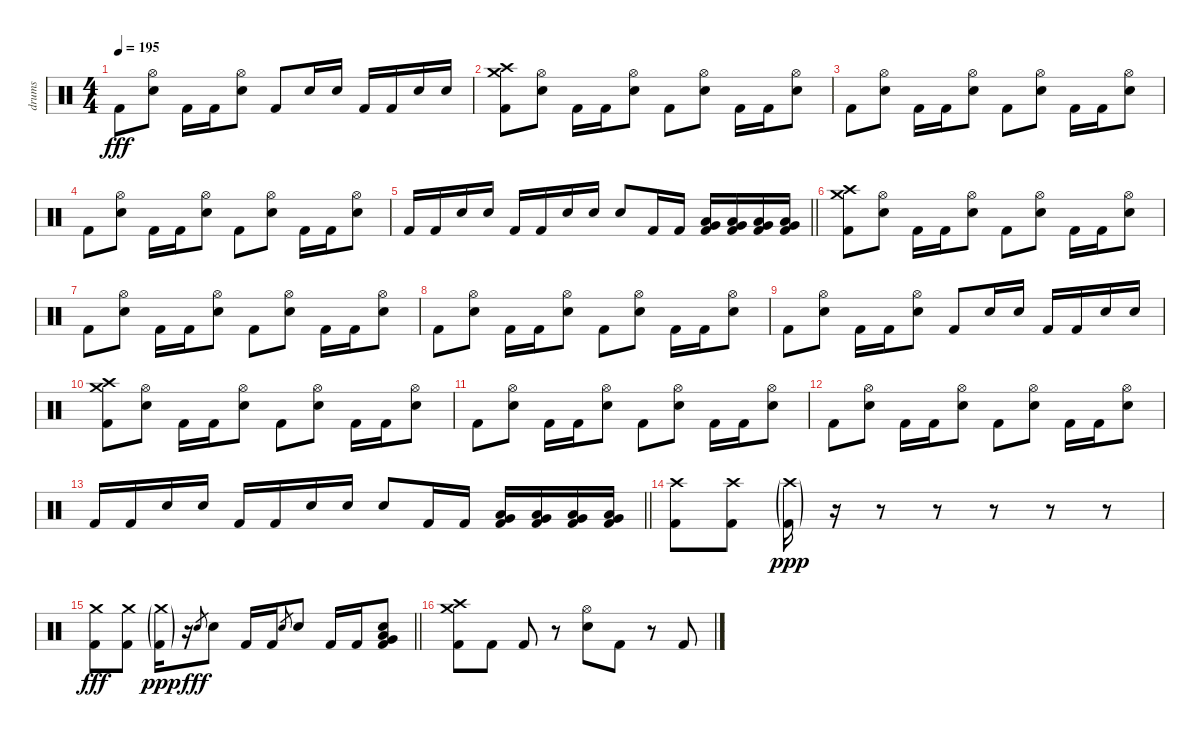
\track ("drums" "drums") {instrument percussion}
\staff {score}
\articulation defaults
\ts (4 4)
\tempo 195
\clef neutral
\ks c "Kick (hit) 2".8{dy fff}
("Hi-Hat (open)" "Electric Snare (hit)").8 "Kick (hit) 2".16 "Kick (hit) 2".16 ("Hi-Hat (open)" "Electric Snare (hit)").8 "Kick (hit) 2".8 "Electric Snare (hit)".16 "Electric Snare (hit)".16 "Kick (hit) 2".16 "Kick (hit) 2".16 "Electric Snare (hit)".16 "Electric Snare (hit)".16 |
("Crash medium (hit)" "Crash high (hit)" "Kick (hit) 2").8 ("Hi-Hat (open)" "Electric Snare (hit)").8 "Kick (hit) 2".16 "Kick (hit) 2".16 ("Hi-Hat (open)" "Electric Snare (hit)").8 "Kick (hit) 2".8 ("Hi-Hat (open)" "Electric Snare (hit)").8 "Kick (hit) 2".16 "Kick (hit) 2".16 ("Hi-Hat (open)" "Electric Snare (hit)").8 |
"Kick (hit) 2".8 ("Hi-Hat (open)" "Electric Snare (hit)").8 "Kick (hit) 2".16 "Kick (hit) 2".16 ("Hi-Hat (open)" "Electric Snare (hit)").8 "Kick (hit) 2".8 ("Hi-Hat (open)" "Electric Snare (hit)").8 "Kick (hit) 2".16 "Kick (hit) 2".16 ("Hi-Hat (open)" "Electric Snare (hit)").8 |
"Kick (hit) 2".8 ("Hi-Hat (open)" "Electric Snare (hit)").8 "Kick (hit) 2".16 "Kick (hit) 2".16 ("Hi-Hat (open)" "Electric Snare (hit)").8 "Kick (hit) 2".8 ("Hi-Hat (open)" "Electric Snare (hit)").8 "Kick (hit) 2".16 "Kick (hit) 2".16 ("Hi-Hat (open)" "Electric Snare (hit)").8 |
\barLineRight lightlight "Kick (hit) 2".16 "Kick (hit) 2".16 "Electric Snare (hit)".16 "Electric Snare (hit)".16 "Kick (hit) 2".16 "Kick (hit) 2".16 "Electric Snare (hit)".16 "Electric Snare (hit)".16 "Electric Snare (hit)".8 "Kick (hit) 2".16 "Kick (hit) 2".16
("Very Low Tom (hit)" "Low Floor Tom (hit)" "Kick (hit) 2").16 ("Low Floor Tom (hit)" "Very Low Tom (hit)" "Kick (hit) 2").16 ("Very Low Tom (hit)" "Low Floor Tom (hit)" "Kick (hit) 2").16 ("Low Floor Tom (hit)" "Very Low Tom (hit)" "Kick (hit) 2").16 |
("Crash medium (hit)" "Crash high (hit)" "Kick (hit) 2").8 ("Hi-Hat (open)" "Electric Snare (hit)").8 "Kick (hit) 2".16 "Kick (hit) 2".16 ("Hi-Hat (open)" "Electric Snare (hit)").8 "Kick (hit) 2".8 ("Hi-Hat (open)" "Electric Snare (hit)").8 "Kick (hit) 2".16 "Kick (hit) 2".16 ("Hi-Hat (open)" "Electric Snare (hit)").8 |
"Kick (hit) 2".8 ("Hi-Hat (open)" "Electric Snare (hit)").8 "Kick (hit) 2".16 "Kick (hit) 2".16 ("Hi-Hat (open)" "Electric Snare (hit)").8 "Kick (hit) 2".8 ("Hi-Hat (open)" "Electric Snare (hit)").8 "Kick (hit) 2".16 "Kick (hit) 2".16 ("Hi-Hat (open)" "Electric Snare (hit)").8 |
"Kick (hit) 2".8 ("Hi-Hat (open)" "Electric Snare (hit)").8 "Kick (hit) 2".16 "Kick (hit) 2".16 ("Hi-Hat (open)" "Electric Snare (hit)").8 "Kick (hit) 2".8 ("Hi-Hat (open)" "Electric Snare (hit)").8 "Kick (hit) 2".16 "Kick (hit) 2".16 ("Hi-Hat (open)" "Electric Snare (hit)").8 |
"Kick (hit) 2".8 ("Hi-Hat (open)" "Electric Snare (hit)").8 "Kick (hit) 2".16 "Kick (hit) 2".16 ("Hi-Hat (open)" "Electric Snare (hit)").8 "Kick (hit) 2".8 "Electric Snare (hit)".16 "Electric Snare (hit)".16 "Kick (hit) 2".16 "Kick (hit) 2".16 "Electric Snare (hit)".16 "Electric Snare (hit)".16 |
("Crash medium (hit)" "Crash high (hit)" "Kick (hit) 2").8 ("Hi-Hat (open)" "Electric Snare (hit)").8 "Kick (hit) 2".16 "Kick (hit) 2".16 ("Hi-Hat (open)" "Electric Snare (hit)").8 "Kick (hit) 2".8 ("Hi-Hat (open)" "Electric Snare (hit)").8 "Kick (hit) 2".16 "Kick (hit) 2".16 ("Hi-Hat (open)" "Electric Snare (hit)").8 |
"Kick (hit) 2".8 ("Hi-Hat (open)" "Electric Snare (hit)").8 "Kick (hit) 2".16 "Kick (hit) 2".16 ("Hi-Hat (open)" "Electric Snare (hit)").8 "Kick (hit) 2".8 ("Hi-Hat (open)" "Electric Snare (hit)").8 "Kick (hit) 2".16 "Kick (hit) 2".16 ("Hi-Hat (open)" "Electric Snare (hit)").8 |
"Kick (hit) 2".8 ("Hi-Hat (open)" "Electric Snare (hit)").8 "Kick (hit) 2".16 "Kick (hit) 2".16 ("Hi-Hat (open)" "Electric Snare (hit)").8 "Kick (hit) 2".8 ("Hi-Hat (open)" "Electric Snare (hit)").8 "Kick (hit) 2".16 "Kick (hit) 2".16 ("Hi-Hat (open)" "Electric Snare (hit)").8 |
\barLineRight lightlight "Kick (hit) 2".16 "Kick (hit) 2".16 "Electric Snare (hit)".16 "Electric Snare (hit)".16 "Kick (hit) 2".16 "Kick (hit) 2".16 "Electric Snare (hit)".16 "Electric Snare (hit)".16 "Electric Snare (hit)".8 "Kick (hit) 2".16 "Kick (hit) 2".16
("Very Low Tom (hit)" "Low Floor Tom (hit)" "Kick (hit) 2").16 ("Low Floor Tom (hit)" "Very Low Tom (hit)" "Kick (hit) 2").16 ("Very Low Tom (hit)" "Low Floor Tom (hit)" "Kick (hit) 2").16 ("Low Floor Tom (hit)" "Very Low Tom (hit)" "Kick (hit) 2").16 |
\section ("" "")
("Crash high (hit)" "Kick (hit) 2").8 ("Crash high (hit)" "Kick (hit) 2").8 ("Crash high (hit)"{g} "Kick (hit) 2"{g}).16{dy ppp} r.16 r.8 r.8 r.8 r.8 r.8 |
\barLineRight lightlight
("Crash medium (hit)" "Kick (hit) 2").8{dy fff} ("Crash medium (hit)" "Kick (hit) 2").8 ("Crash medium (hit)"{g} "Kick (hit) 2"{g}).16{dy ppp} r.16 "Electric Snare (hit)".8{gr dy fff} "Electric Snare (hit)".8 "Kick (hit) 2".16 "Kick (hit) 2".16 "Electric Snare (hit)".8{gr} "Electric Snare (hit)".8 "Kick (hit) 2".16 "Kick (hit) 2".16 ("Electric Snare (hit)" "Very Low Tom (hit)" "Low Floor Tom (hit)" "Kick (hit) 2").8 |
\section ("" "")
("Crash high (hit)" "Crash medium (hit)" "Kick (hit) 2").8 "Kick (hit) 2".8 "Kick (hit) 2".8 r.8 ("Hi-Hat (open)" "Electric Snare (hit)").8 "Kick (hit) 2".8 r.8 "Kick (hit) 2".8
